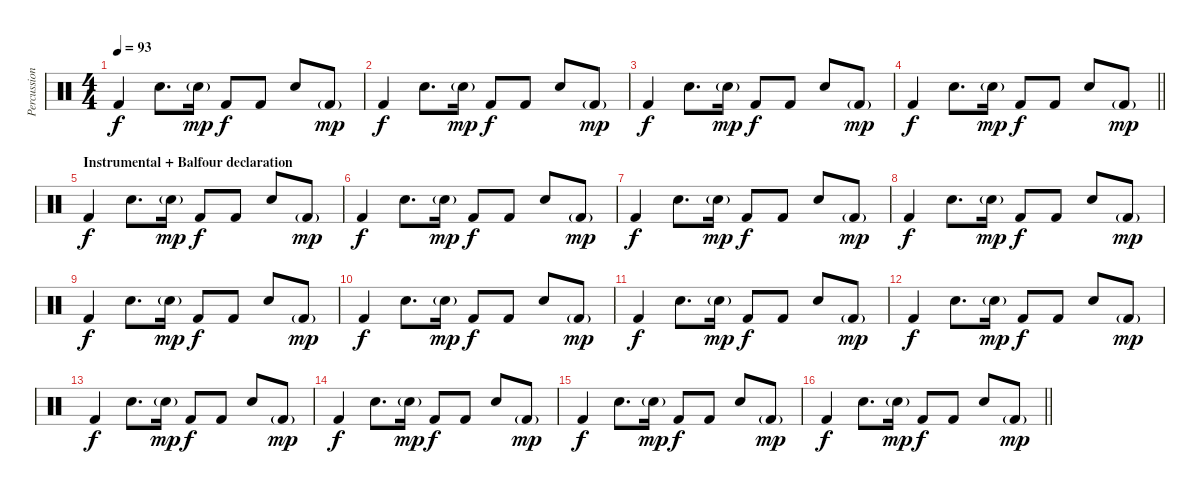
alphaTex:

\track ("Percussion" "Percussion") {instrument percussion}
\staff {score}
\articulation defaults
\ts (4 4)
\tempo 93
\clef neutral
\ks c "Kick (hit) 2".4{dy f} "Snare (hit) 2".8{d} "Snare (hit) 2"{g}.16{dy mp} "Kick (hit) 2".8{dy f} "Kick (hit) 2".8 "Snare (hit) 2".8 "Kick (hit) 2"{g}.8{dy mp}
|
"Kick (hit) 2".4{dy f} "Snare (hit) 2".8{d} "Snare (hit) 2"{g}.16{dy mp} "Kick (hit) 2".8{dy f} "Kick (hit) 2".8 "Snare (hit) 2".8 "Kick (hit) 2"{g}.8{dy mp} |
"Kick (hit) 2".4{dy f} "Snare (hit) 2".8{d} "Snare (hit) 2"{g}.16{dy mp} "Kick (hit) 2".8{dy f} "Kick (hit) 2".8 "Snare (hit) 2".8 "Kick (hit) 2"{g}.8{dy mp} |
\barLineRight lightlight "Kick (hit) 2".4{dy f} "Snare (hit) 2".8{d} "Snare (hit) 2"{g}.16{dy mp} "Kick (hit) 2".8{dy f} "Kick (hit) 2".8 "Snare (hit) 2".8 "Kick (hit) 2"{g}.8{dy mp}
|
\section ("" "Instrumental + Balfour declaration")
"Kick (hit) 2".4{dy f} "Snare (hit) 2".8{d} "Snare (hit) 2"{g}.16{dy mp} "Kick (hit) 2".8{dy f} "Kick (hit) 2".8 "Snare (hit) 2".8 "Kick (hit) 2"{g}.8{dy mp} |
"Kick (hit) 2".4{dy f} "Snare (hit) 2".8{d} "Snare (hit) 2"{g}.16{dy mp} "Kick (hit) 2".8{dy f} "Kick (hit) 2".8 "Snare (hit) 2".8 "Kick (hit) 2"{g}.8{dy mp} |
"Kick (hit) 2".4{dy f} "Snare (hit) 2".8{d} "Snare (hit) 2"{g}.16{dy mp} "Kick (hit) 2".8{dy f} "Kick (hit) 2".8 "Snare (hit) 2".8 "Kick (hit) 2"{g}.8{dy mp} |
"Kick (hit) 2".4{dy f} "Snare (hit) 2".8{d} "Snare (hit) 2"{g}.16{dy mp} "Kick (hit) 2".8{dy f} "Kick (hit) 2".8 "Snare (hit) 2".8 "Kick (hit) 2"{g}.8{dy mp} |
"Kick (hit) 2".4{dy f} "Snare (hit) 2".8{d} "Snare (hit) 2"{g}.16{dy mp} "Kick (hit) 2".8{dy f} "Kick (hit) 2".8 "Snare (hit) 2".8 "Kick (hit) 2"{g}.8{dy mp} |
"Kick (hit) 2".4{dy f} "Snare (hit) 2".8{d} "Snare (hit) 2"{g}.16{dy mp} "Kick (hit) 2".8{dy f} "Kick (hit) 2".8 "Snare (hit) 2".8 "Kick (hit) 2"{g}.8{dy mp} |
"Kick (hit) 2".4{dy f} "Snare (hit) 2".8{d} "Snare (hit) 2"{g}.16{dy mp} "Kick (hit) 2".8{dy f} "Kick (hit) 2".8 "Snare (hit) 2".8 "Kick (hit) 2"{g}.8{dy mp} |
"Kick (hit) 2".4{dy f} "Snare (hit) 2".8{d} "Snare (hit) 2"{g}.16{dy mp} "Kick (hit) 2".8{dy f} "Kick (hit) 2".8 "Snare (hit) 2".8 "Kick (hit) 2"{g}.8{dy mp} |
"Kick (hit) 2".4{dy f} "Snare (hit) 2".8{d} "Snare (hit) 2"{g}.16{dy mp} "Kick (hit) 2".8{dy f} "Kick (hit) 2".8 "Snare (hit) 2".8 "Kick (hit) 2"{g}.8{dy mp} |
"Kick (hit) 2".4{dy f} "Snare (hit) 2".8{d} "Snare (hit) 2"{g}.16{dy mp} "Kick (hit) 2".8{dy f} "Kick (hit) 2".8 "Snare (hit) 2".8 "Kick (hit) 2"{g}.8{dy mp} |
"Kick (hit) 2".4{dy f} "Snare (hit) 2".8{d} "Snare (hit) 2"{g}.16{dy mp} "Kick (hit) 2".8{dy f} "Kick (hit) 2".8 "Snare (hit) 2".8 "Kick (hit) 2"{g}.8{dy mp} |
\barLineRight lightlight "Kick (hit) 2".4{dy f} "Snare (hit) 2".8{d} "Snare (hit) 2"{g}.16{dy mp} "Kick (hit) 2".8{dy f} "Kick (hit) 2".8 "Snare (hit) 2".8 "Kick (hit) 2"{g}.8{dy mp}
